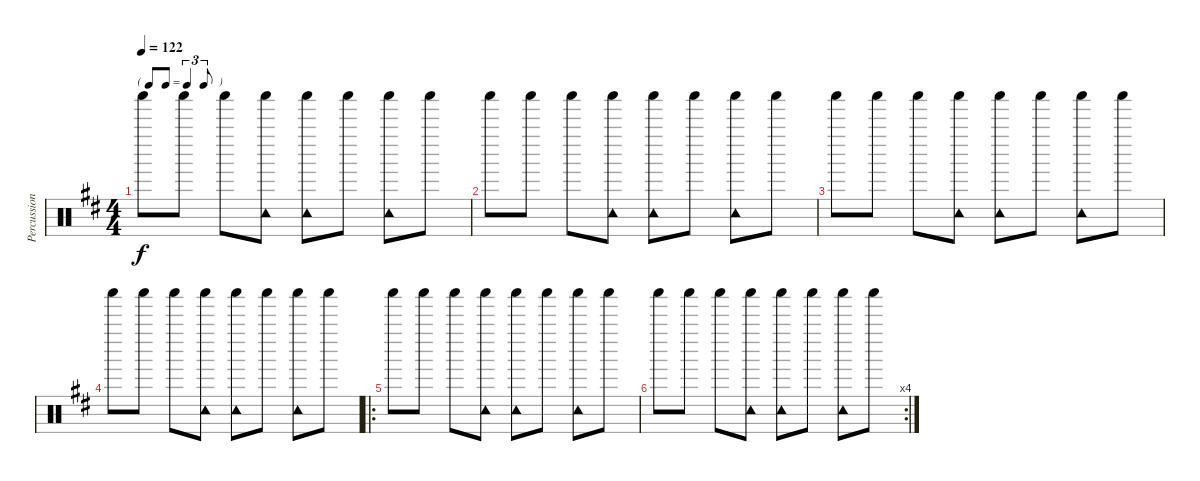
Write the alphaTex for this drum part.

\track ("Percussioni" "Percussion") {instrument percussion}
\staff {score}
\articulation defaults
\ts (4 4)
\tf triplet8th
\tempo 122
\clef neutral
\ks d "Shaker (hit)".8{dy f} "Shaker (hit)".8 "Shaker (hit)".8
("Shaker (hit)" "Tambourine (hit)").8 ("Shaker (hit)" "Tambourine (hit)").8 "Shaker (hit)".8 ("Shaker (hit)" "Tambourine (hit)").8 "Shaker (hit)".8 |
"Shaker (hit)".8 "Shaker (hit)".8 "Shaker (hit)".8 ("Shaker (hit)" "Tambourine (hit)").8 ("Shaker (hit)" "Tambourine (hit)").8 "Shaker (hit)".8 ("Shaker (hit)" "Tambourine (hit)").8 "Shaker (hit)".8 |
"Shaker (hit)".8 "Shaker (hit)".8 "Shaker (hit)".8 ("Shaker (hit)" "Tambourine (hit)").8 ("Shaker (hit)" "Tambourine (hit)").8 "Shaker (hit)".8 ("Shaker (hit)" "Tambourine (hit)").8 "Shaker (hit)".8 |
"Shaker (hit)".8 "Shaker (hit)".8 "Shaker (hit)".8 ("Shaker (hit)" "Tambourine (hit)").8 ("Shaker (hit)" "Tambourine (hit)").8 "Shaker (hit)".8 ("Shaker (hit)" "Tambourine (hit)").8 "Shaker (hit)".8 |
\ro "Shaker (hit)".8 "Shaker (hit)".8 "Shaker (hit)".8
("Shaker (hit)" "Tambourine (hit)").8 ("Shaker (hit)" "Tambourine (hit)").8 "Shaker (hit)".8 ("Shaker (hit)" "Tambourine (hit)").8 "Shaker (hit)".8 |
\rc 4 "Shaker (hit)".8 "Shaker (hit)".8 "Shaker (hit)".8
("Shaker (hit)" "Tambourine (hit)").8 ("Shaker (hit)" "Tambourine (hit)").8 "Shaker (hit)".8 ("Shaker (hit)" "Tambourine (hit)").8 "Shaker (hit)".8
